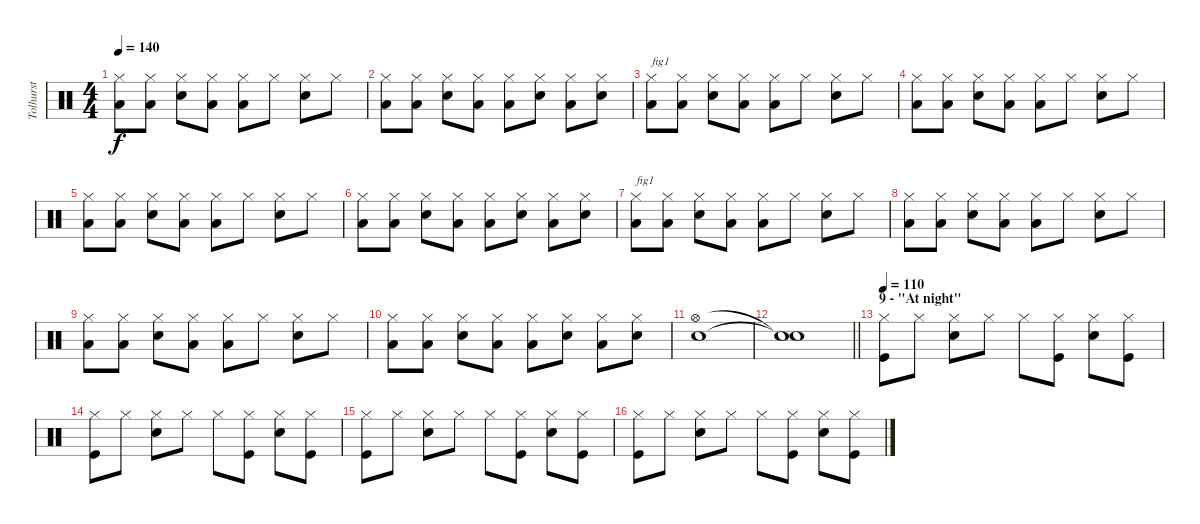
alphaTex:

\track ("Tolhurst" "Tolhurst") {instrument percussion}
\staff {score}
\articulation defaults
\ts (4 4)
\tempo 140
\clef neutral
\ks c
("Low Floor Tom (hit)" "Hi-Hat (closed)").8{dy f} ("Low Floor Tom (hit)" "Hi-Hat (closed)").8 ("Snare (hit) 2" "Hi-Hat (closed)").8 ("Low Floor Tom (hit)" "Hi-Hat (closed)").8 ("Low Floor Tom (hit)" "Hi-Hat (closed)").8 "Hi-Hat (closed)".8 ("Snare (hit) 2" "Hi-Hat (closed)").8 "Hi-Hat (closed)".8 |
("Low Floor Tom (hit)" "Hi-Hat (closed)").8 ("Low Floor Tom (hit)" "Hi-Hat (closed)").8 ("Snare (hit) 2" "Hi-Hat (closed)").8 ("Low Floor Tom (hit)" "Hi-Hat (closed)").8 ("Low Floor Tom (hit)" "Hi-Hat (closed)").8 ("Snare (hit) 2" "Hi-Hat (closed)").8 ("Low Floor Tom (hit)" "Hi-Hat (closed)").8 ("Snare (hit) 2" "Hi-Hat (closed)").8 |
("Low Floor Tom (hit)" "Hi-Hat (closed)").8{txt "fig1"} ("Low Floor Tom (hit)" "Hi-Hat (closed)").8 ("Snare (hit) 2" "Hi-Hat (closed)").8 ("Low Floor Tom (hit)" "Hi-Hat (closed)").8 ("Low Floor Tom (hit)" "Hi-Hat (closed)").8 "Hi-Hat (closed)".8 ("Snare (hit) 2" "Hi-Hat (closed)").8 "Hi-Hat (closed)".8 |
("Low Floor Tom (hit)" "Hi-Hat (closed)").8 ("Low Floor Tom (hit)" "Hi-Hat (closed)").8 ("Snare (hit) 2" "Hi-Hat (closed)").8 ("Low Floor Tom (hit)" "Hi-Hat (closed)").8 ("Low Floor Tom (hit)" "Hi-Hat (closed)").8 "Hi-Hat (closed)".8 ("Snare (hit) 2" "Hi-Hat (closed)").8 "Hi-Hat (closed)".8 |
("Low Floor Tom (hit)" "Hi-Hat (closed)").8 ("Low Floor Tom (hit)" "Hi-Hat (closed)").8 ("Snare (hit) 2" "Hi-Hat (closed)").8 ("Low Floor Tom (hit)" "Hi-Hat (closed)").8 ("Low Floor Tom (hit)" "Hi-Hat (closed)").8 "Hi-Hat (closed)".8 ("Snare (hit) 2" "Hi-Hat (closed)").8 "Hi-Hat (closed)".8 |
("Low Floor Tom (hit)" "Hi-Hat (closed)").8 ("Low Floor Tom (hit)" "Hi-Hat (closed)").8 ("Snare (hit) 2" "Hi-Hat (closed)").8 ("Low Floor Tom (hit)" "Hi-Hat (closed)").8 ("Low Floor Tom (hit)" "Hi-Hat (closed)").8 ("Snare (hit) 2" "Hi-Hat (closed)").8 ("Low Floor Tom (hit)" "Hi-Hat (closed)").8 ("Snare (hit) 2" "Hi-Hat (closed)").8 |
("Low Floor Tom (hit)" "Hi-Hat (closed)").8{txt "fig1"} ("Low Floor Tom (hit)" "Hi-Hat (closed)").8 ("Snare (hit) 2" "Hi-Hat (closed)").8 ("Low Floor Tom (hit)" "Hi-Hat (closed)").8 ("Low Floor Tom (hit)" "Hi-Hat (closed)").8 "Hi-Hat (closed)".8 ("Snare (hit) 2" "Hi-Hat (closed)").8 "Hi-Hat (closed)".8 |
("Low Floor Tom (hit)" "Hi-Hat (closed)").8 ("Low Floor Tom (hit)" "Hi-Hat (closed)").8 ("Snare (hit) 2" "Hi-Hat (closed)").8 ("Low Floor Tom (hit)" "Hi-Hat (closed)").8 ("Low Floor Tom (hit)" "Hi-Hat (closed)").8 "Hi-Hat (closed)".8 ("Snare (hit) 2" "Hi-Hat (closed)").8 "Hi-Hat (closed)".8 |
("Low Floor Tom (hit)" "Hi-Hat (closed)").8 ("Low Floor Tom (hit)" "Hi-Hat (closed)").8 ("Snare (hit) 2" "Hi-Hat (closed)").8 ("Low Floor Tom (hit)" "Hi-Hat (closed)").8 ("Low Floor Tom (hit)" "Hi-Hat (closed)").8 "Hi-Hat (closed)".8 ("Snare (hit) 2" "Hi-Hat (closed)").8 "Hi-Hat (closed)".8 |
("Low Floor Tom (hit)" "Hi-Hat (closed)").8 ("Low Floor Tom (hit)" "Hi-Hat (closed)").8 ("Snare (hit) 2" "Hi-Hat (closed)").8 ("Low Floor Tom (hit)" "Hi-Hat (closed)").8 ("Low Floor Tom (hit)" "Hi-Hat (closed)").8 ("Snare (hit) 2" "Hi-Hat (closed)").8 ("Low Floor Tom (hit)" "Hi-Hat (closed)").8 ("Snare (hit) 2" "Hi-Hat (closed)").8 |
("Snare (hit) 2" "Hi-Hat (open)").1 |
\barLineRight lightlight
("Snare (hit)"{t} "Snare (hit)"{t}).1 |
\section ("" "9 - \"At night\"")
\tempo 110
("Hi-Hat (closed)" "Kick (hit)").8 "Hi-Hat (closed)".8 ("Hi-Hat (closed)" "Electric Snare (hit)").8 "Hi-Hat (closed)".8 "Hi-Hat (closed)".8 ("Hi-Hat (closed)" "Kick (hit)").8 ("Hi-Hat (closed)" "Electric Snare (hit)").8 ("Hi-Hat (closed)" "Kick (hit)").8 |
("Hi-Hat (closed)" "Kick (hit)").8 "Hi-Hat (closed)".8 ("Hi-Hat (closed)" "Electric Snare (hit)").8 "Hi-Hat (closed)".8 "Hi-Hat (closed)".8 ("Hi-Hat (closed)" "Kick (hit)").8 ("Hi-Hat (closed)" "Electric Snare (hit)").8 ("Hi-Hat (closed)" "Kick (hit)").8 |
("Hi-Hat (closed)" "Kick (hit)").8 "Hi-Hat (closed)".8 ("Hi-Hat (closed)" "Electric Snare (hit)").8 "Hi-Hat (closed)".8 "Hi-Hat (closed)".8 ("Hi-Hat (closed)" "Kick (hit)").8 ("Hi-Hat (closed)" "Electric Snare (hit)").8 ("Hi-Hat (closed)" "Kick (hit)").8 |
("Hi-Hat (closed)" "Kick (hit)").8 "Hi-Hat (closed)".8 ("Hi-Hat (closed)" "Electric Snare (hit)").8 "Hi-Hat (closed)".8 "Hi-Hat (closed)".8 ("Hi-Hat (closed)" "Kick (hit)").8 ("Hi-Hat (closed)" "Electric Snare (hit)").8 ("Hi-Hat (closed)" "Kick (hit)").8
